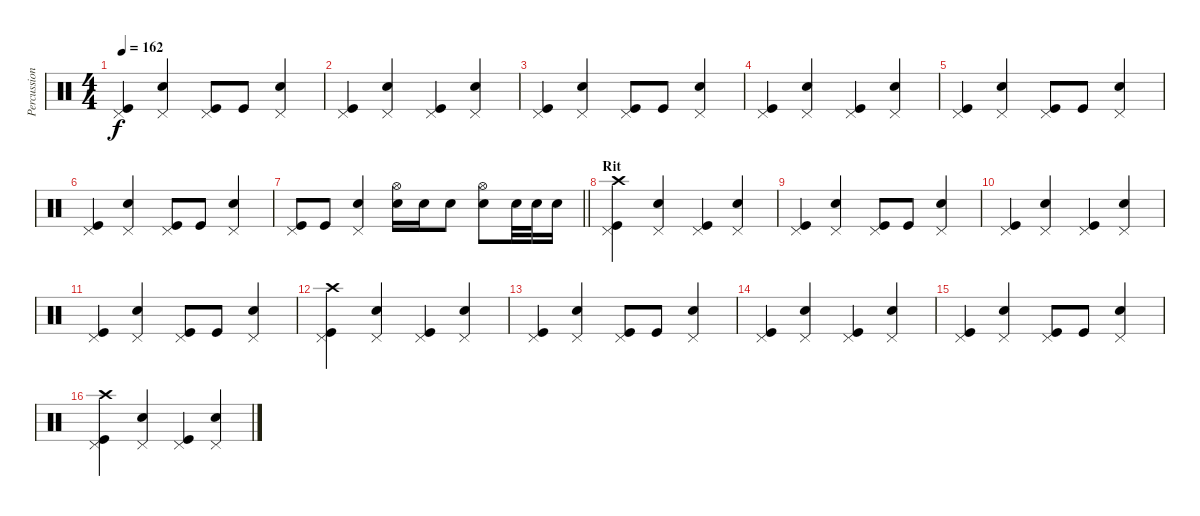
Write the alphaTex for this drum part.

\track ("Percussioni" "Percussion") {instrument percussion}
\staff {score}
\articulation defaults
\ts (4 4)
\tempo 162
\clef neutral
\ks c
("Pedal Hi-Hat (hit)" "Kick (hit)").4{dy f} ("Pedal Hi-Hat (hit)" "Snare (hit) 2").4 ("Pedal Hi-Hat (hit)" "Kick (hit)").8 "Kick (hit)".8 ("Pedal Hi-Hat (hit)" "Snare (hit) 2").4 |
("Pedal Hi-Hat (hit)" "Kick (hit)").4 ("Pedal Hi-Hat (hit)" "Snare (hit) 2").4 ("Pedal Hi-Hat (hit)" "Kick (hit)").4 ("Pedal Hi-Hat (hit)" "Snare (hit) 2").4 |
("Pedal Hi-Hat (hit)" "Kick (hit)").4 ("Pedal Hi-Hat (hit)" "Snare (hit) 2").4 ("Pedal Hi-Hat (hit)" "Kick (hit)").8 "Kick (hit)".8 ("Pedal Hi-Hat (hit)" "Snare (hit) 2").4 |
("Pedal Hi-Hat (hit)" "Kick (hit)").4 ("Pedal Hi-Hat (hit)" "Snare (hit) 2").4 ("Pedal Hi-Hat (hit)" "Kick (hit)").4 ("Pedal Hi-Hat (hit)" "Snare (hit) 2").4 |
("Pedal Hi-Hat (hit)" "Kick (hit)").4 ("Pedal Hi-Hat (hit)" "Snare (hit) 2").4 ("Pedal Hi-Hat (hit)" "Kick (hit)").8 "Kick (hit)".8 ("Pedal Hi-Hat (hit)" "Snare (hit) 2").4 |
("Pedal Hi-Hat (hit)" "Kick (hit)").4 ("Pedal Hi-Hat (hit)" "Snare (hit) 2").4 ("Pedal Hi-Hat (hit)" "Kick (hit)").8 "Kick (hit)".8 ("Pedal Hi-Hat (hit)" "Snare (hit) 2").4 |
\barLineRight lightlight
("Pedal Hi-Hat (hit)" "Kick (hit)").8 "Kick (hit)".8 ("Pedal Hi-Hat (hit)" "Snare (hit) 2").4 ("Snare (hit) 2" "Hi-Hat (open)").16 "Snare (hit) 2".16 "Snare (hit) 2".8 ("Snare (hit) 2" "Hi-Hat (open)").8 "Snare (hit) 2".32 "Snare (hit) 2".32 "Snare (hit) 2".16 |
\section ("" "Rit")
("Pedal Hi-Hat (hit)" "Kick (hit)" "Crash high (hit)").4 ("Pedal Hi-Hat (hit)" "Snare (hit) 2").4 ("Pedal Hi-Hat (hit)" "Kick (hit)").4 ("Pedal Hi-Hat (hit)" "Snare (hit) 2").4 |
("Pedal Hi-Hat (hit)" "Kick (hit)").4 ("Pedal Hi-Hat (hit)" "Snare (hit) 2").4 ("Pedal Hi-Hat (hit)" "Kick (hit)").8 "Kick (hit)".8 ("Pedal Hi-Hat (hit)" "Snare (hit) 2").4 |
("Pedal Hi-Hat (hit)" "Kick (hit)").4 ("Pedal Hi-Hat (hit)" "Snare (hit) 2").4 ("Pedal Hi-Hat (hit)" "Kick (hit)").4 ("Pedal Hi-Hat (hit)" "Snare (hit) 2").4 |
("Pedal Hi-Hat (hit)" "Kick (hit)").4 ("Pedal Hi-Hat (hit)" "Snare (hit) 2").4 ("Pedal Hi-Hat (hit)" "Kick (hit)").8 "Kick (hit)".8 ("Pedal Hi-Hat (hit)" "Snare (hit) 2").4 |
("Pedal Hi-Hat (hit)" "Kick (hit)" "Crash high (hit)").4 ("Pedal Hi-Hat (hit)" "Snare (hit) 2").4 ("Pedal Hi-Hat (hit)" "Kick (hit)").4 ("Pedal Hi-Hat (hit)" "Snare (hit) 2").4 |
("Pedal Hi-Hat (hit)" "Kick (hit)").4 ("Pedal Hi-Hat (hit)" "Snare (hit) 2").4 ("Pedal Hi-Hat (hit)" "Kick (hit)").8 "Kick (hit)".8 ("Pedal Hi-Hat (hit)" "Snare (hit) 2").4 |
("Pedal Hi-Hat (hit)" "Kick (hit)").4 ("Pedal Hi-Hat (hit)" "Snare (hit) 2").4 ("Pedal Hi-Hat (hit)" "Kick (hit)").4 ("Pedal Hi-Hat (hit)" "Snare (hit) 2").4 |
("Pedal Hi-Hat (hit)" "Kick (hit)").4 ("Pedal Hi-Hat (hit)" "Snare (hit) 2").4 ("Pedal Hi-Hat (hit)" "Kick (hit)").8 "Kick (hit)".8 ("Pedal Hi-Hat (hit)" "Snare (hit) 2").4 |
("Pedal Hi-Hat (hit)" "Kick (hit)" "Crash high (hit)").4 ("Pedal Hi-Hat (hit)" "Snare (hit) 2").4 ("Pedal Hi-Hat (hit)" "Kick (hit)").4 ("Pedal Hi-Hat (hit)" "Snare (hit) 2").4
